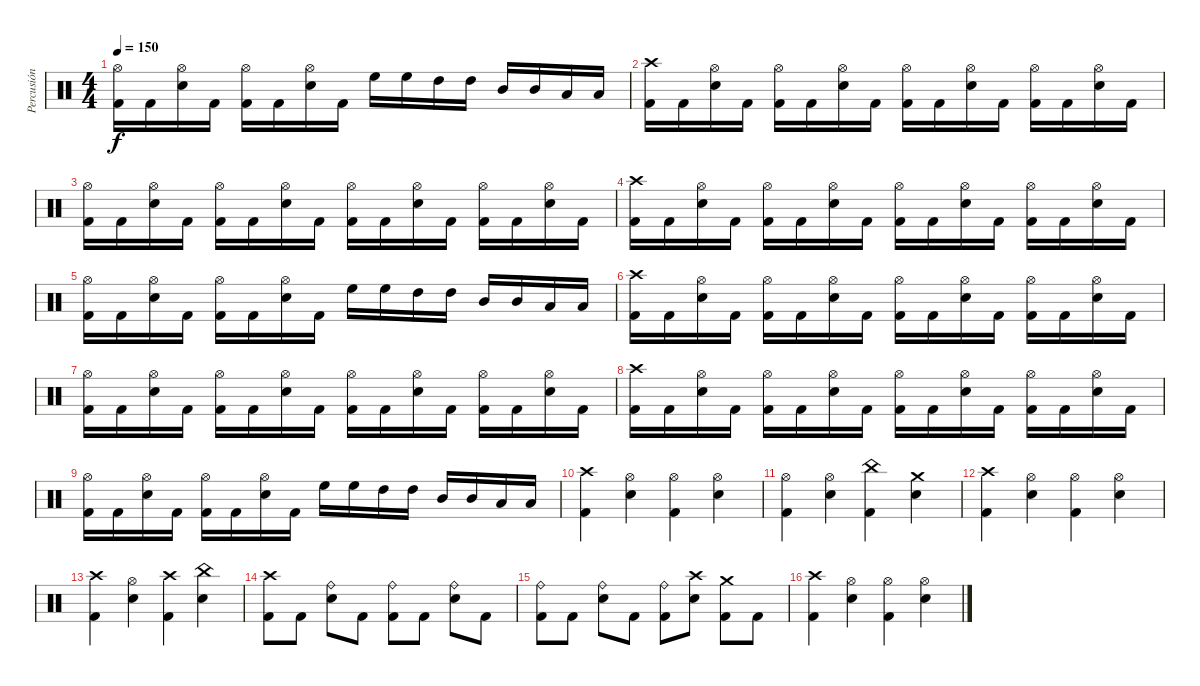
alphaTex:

\track ("Percusión" "Percusión") {instrument percussion}
\staff {score}
\articulation defaults
\ts (4 4)
\tempo 150
\clef neutral
\ks c
("Hi-Hat (open)" "Kick (hit) 2").16{dy f} "Kick (hit) 2".16 ("Hi-Hat (open)" "Electric Snare (hit)").16 "Kick (hit) 2".16 ("Hi-Hat (open)" "Kick (hit) 2").16 "Kick (hit) 2".16 ("Hi-Hat (open)" "Electric Snare (hit)").16 "Kick (hit) 2".16 "High Floor Tom (hit)".16 "High Floor Tom (hit)".16 "High Tom (hit)".16 "High Tom (hit)".16 "Mid Tom (hit)".16 "Mid Tom (hit)".16 "Low Tom (hit)".16 "Low Tom (hit)".16 |
("Crash high (hit)" "Kick (hit) 2").16 "Kick (hit) 2".16 ("Hi-Hat (open)" "Electric Snare (hit)").16 "Kick (hit) 2".16 ("Hi-Hat (open)" "Kick (hit) 2").16 "Kick (hit) 2".16 ("Hi-Hat (open)" "Electric Snare (hit)").16 "Kick (hit) 2".16 ("Hi-Hat (open)" "Kick (hit) 2").16 "Kick (hit) 2".16 ("Hi-Hat (open)" "Electric Snare (hit)").16 "Kick (hit) 2".16 ("Hi-Hat (open)" "Kick (hit) 2").16 "Kick (hit) 2".16 ("Hi-Hat (open)" "Electric Snare (hit)").16 "Kick (hit) 2".16 |
("Hi-Hat (open)" "Kick (hit) 2").16 "Kick (hit) 2".16 ("Hi-Hat (open)" "Electric Snare (hit)").16 "Kick (hit) 2".16 ("Hi-Hat (open)" "Kick (hit) 2").16 "Kick (hit) 2".16 ("Hi-Hat (open)" "Electric Snare (hit)").16 "Kick (hit) 2".16 ("Hi-Hat (open)" "Kick (hit) 2").16 "Kick (hit) 2".16 ("Hi-Hat (open)" "Electric Snare (hit)").16 "Kick (hit) 2".16 ("Hi-Hat (open)" "Kick (hit) 2").16 "Kick (hit) 2".16 ("Hi-Hat (open)" "Electric Snare (hit)").16 "Kick (hit) 2".16 |
("Crash high (hit)" "Kick (hit) 2").16 "Kick (hit) 2".16 ("Hi-Hat (open)" "Electric Snare (hit)").16 "Kick (hit) 2".16 ("Hi-Hat (open)" "Kick (hit) 2").16 "Kick (hit) 2".16 ("Hi-Hat (open)" "Electric Snare (hit)").16 "Kick (hit) 2".16 ("Hi-Hat (open)" "Kick (hit) 2").16 "Kick (hit) 2".16 ("Hi-Hat (open)" "Electric Snare (hit)").16 "Kick (hit) 2".16 ("Hi-Hat (open)" "Kick (hit) 2").16 "Kick (hit) 2".16 ("Hi-Hat (open)" "Electric Snare (hit)").16 "Kick (hit) 2".16 |
("Hi-Hat (open)" "Kick (hit) 2").16 "Kick (hit) 2".16 ("Hi-Hat (open)" "Electric Snare (hit)").16 "Kick (hit) 2".16 ("Hi-Hat (open)" "Kick (hit) 2").16 "Kick (hit) 2".16 ("Hi-Hat (open)" "Electric Snare (hit)").16 "Kick (hit) 2".16 "High Floor Tom (hit)".16 "High Floor Tom (hit)".16 "High Tom (hit)".16 "High Tom (hit)".16 "Mid Tom (hit)".16 "Mid Tom (hit)".16 "Low Tom (hit)".16 "Low Tom (hit)".16 |
("Crash high (hit)" "Kick (hit) 2").16 "Kick (hit) 2".16 ("Hi-Hat (open)" "Electric Snare (hit)").16 "Kick (hit) 2".16 ("Hi-Hat (open)" "Kick (hit) 2").16 "Kick (hit) 2".16 ("Hi-Hat (open)" "Electric Snare (hit)").16 "Kick (hit) 2".16 ("Hi-Hat (open)" "Kick (hit) 2").16 "Kick (hit) 2".16 ("Hi-Hat (open)" "Electric Snare (hit)").16 "Kick (hit) 2".16 ("Hi-Hat (open)" "Kick (hit) 2").16 "Kick (hit) 2".16 ("Hi-Hat (open)" "Electric Snare (hit)").16 "Kick (hit) 2".16 |
("Hi-Hat (open)" "Kick (hit) 2").16 "Kick (hit) 2".16 ("Hi-Hat (open)" "Electric Snare (hit)").16 "Kick (hit) 2".16 ("Hi-Hat (open)" "Kick (hit) 2").16 "Kick (hit) 2".16 ("Hi-Hat (open)" "Electric Snare (hit)").16 "Kick (hit) 2".16 ("Hi-Hat (open)" "Kick (hit) 2").16 "Kick (hit) 2".16 ("Hi-Hat (open)" "Electric Snare (hit)").16 "Kick (hit) 2".16 ("Hi-Hat (open)" "Kick (hit) 2").16 "Kick (hit) 2".16 ("Hi-Hat (open)" "Electric Snare (hit)").16 "Kick (hit) 2".16 |
("Crash high (hit)" "Kick (hit) 2").16 "Kick (hit) 2".16 ("Hi-Hat (open)" "Electric Snare (hit)").16 "Kick (hit) 2".16 ("Hi-Hat (open)" "Kick (hit) 2").16 "Kick (hit) 2".16 ("Hi-Hat (open)" "Electric Snare (hit)").16 "Kick (hit) 2".16 ("Hi-Hat (open)" "Kick (hit) 2").16 "Kick (hit) 2".16 ("Hi-Hat (open)" "Electric Snare (hit)").16 "Kick (hit) 2".16 ("Hi-Hat (open)" "Kick (hit) 2").16 "Kick (hit) 2".16 ("Hi-Hat (open)" "Electric Snare (hit)").16 "Kick (hit) 2".16 |
("Hi-Hat (open)" "Kick (hit) 2").16 "Kick (hit) 2".16 ("Hi-Hat (open)" "Electric Snare (hit)").16 "Kick (hit) 2".16 ("Hi-Hat (open)" "Kick (hit) 2").16 "Kick (hit) 2".16 ("Hi-Hat (open)" "Electric Snare (hit)").16 "Kick (hit) 2".16 "High Floor Tom (hit)".16 "High Floor Tom (hit)".16 "High Tom (hit)".16 "High Tom (hit)".16 "Mid Tom (hit)".16 "Mid Tom (hit)".16 "Low Tom (hit)".16 "Low Tom (hit)".16 |
("Crash high (hit)" "Kick (hit) 2").4 ("Hi-Hat (open)" "Electric Snare (hit)").4 ("Hi-Hat (open)" "Kick (hit) 2").4 ("Hi-Hat (open)" "Electric Snare (hit)").4 |
("Hi-Hat (open)" "Kick (hit) 2").4 ("Hi-Hat (open)" "Electric Snare (hit)").4 ("China (hit)" "Kick (hit) 2").4 ("Crash medium (hit)" "Electric Snare (hit)").4 |
("Crash high (hit)" "Kick (hit) 2").4 ("Hi-Hat (open)" "Electric Snare (hit)").4 ("Hi-Hat (open)" "Kick (hit) 2").4 ("Hi-Hat (open)" "Electric Snare (hit)").4 |
("Crash high (hit)" "Kick (hit) 2").4 ("Hi-Hat (open)" "Electric Snare (hit)").4 ("Crash high (hit)" "Kick (hit) 2").4 ("China (hit)" "Electric Snare (hit)").4 |
("Crash high (hit)" "Kick (hit) 2").8 "Kick (hit) 2".8 ("Ride (bell)" "Electric Snare (hit)").8 "Kick (hit) 2".8 ("Ride (bell)" "Kick (hit) 2").8 "Kick (hit) 2".8 ("Ride (bell)" "Electric Snare (hit)").8 "Kick (hit) 2".8 |
("Ride (bell)" "Kick (hit) 2").8 "Kick (hit) 2".8 ("Ride (bell)" "Electric Snare (hit)").8 "Kick (hit) 2".8 ("Ride (bell)" "Kick (hit) 2").8 ("Crash high (hit)" "Electric Snare (hit)").8 ("Crash medium (hit)" "Kick (hit) 2").8 "Kick (hit) 2".8 |
("Crash high (hit)" "Kick (hit) 2").4 ("Hi-Hat (open)" "Electric Snare (hit)").4 ("Hi-Hat (open)" "Kick (hit) 2").4 ("Hi-Hat (open)" "Electric Snare (hit)").4
